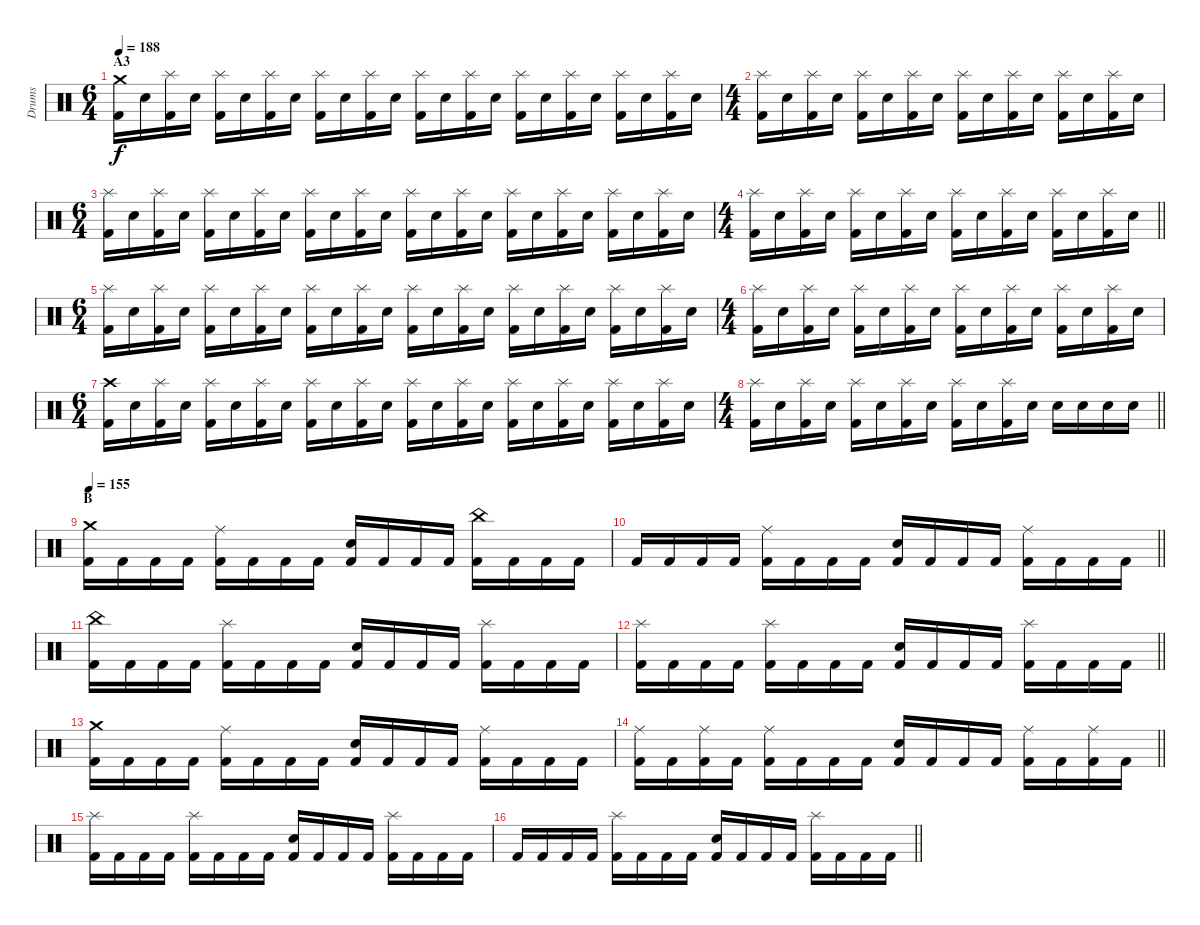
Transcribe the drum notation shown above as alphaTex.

\track ("Drums" "Drums") {instrument percussion}
\staff {score}
\articulation defaults
\ts (6 4)
\section ("" "A3")
\tempo 188
\clef neutral
\ks c
("Crash medium (hit)" "Kick (hit) 2").16{dy f} "Electric Snare (hit)".16 ("Splash (hit)" "Kick (hit) 2").16 "Electric Snare (hit)".16 ("Splash (hit)" "Kick (hit) 2").16 "Electric Snare (hit)".16 ("Splash (hit)" "Kick (hit) 2").16 "Electric Snare (hit)".16 ("Splash (hit)" "Kick (hit) 2").16 "Electric Snare (hit)".16 ("Splash (hit)" "Kick (hit) 2").16 "Electric Snare (hit)".16 ("Splash (hit)" "Kick (hit) 2").16 "Electric Snare (hit)".16 ("Splash (hit)" "Kick (hit) 2").16 "Electric Snare (hit)".16 ("Splash (hit)" "Kick (hit) 2").16 "Electric Snare (hit)".16 ("Splash (hit)" "Kick (hit) 2").16 "Electric Snare (hit)".16 ("Splash (hit)" "Kick (hit) 2").16 "Electric Snare (hit)".16 ("Splash (hit)" "Kick (hit) 2").16 "Electric Snare (hit)".16 |
\ts (4 4)
("Splash (hit)" "Kick (hit) 2").16 "Electric Snare (hit)".16 ("Splash (hit)" "Kick (hit) 2").16 "Electric Snare (hit)".16 ("Splash (hit)" "Kick (hit) 2").16 "Electric Snare (hit)".16 ("Splash (hit)" "Kick (hit) 2").16 "Electric Snare (hit)".16 ("Splash (hit)" "Kick (hit) 2").16 "Electric Snare (hit)".16 ("Splash (hit)" "Kick (hit) 2").16 "Electric Snare (hit)".16 ("Splash (hit)" "Kick (hit) 2").16 "Electric Snare (hit)".16 ("Splash (hit)" "Kick (hit) 2").16 "Electric Snare (hit)".16 |
\ts (6 4)
("Splash (hit)" "Kick (hit) 2").16 "Electric Snare (hit)".16 ("Splash (hit)" "Kick (hit) 2").16 "Electric Snare (hit)".16 ("Splash (hit)" "Kick (hit) 2").16 "Electric Snare (hit)".16 ("Splash (hit)" "Kick (hit) 2").16 "Electric Snare (hit)".16 ("Splash (hit)" "Kick (hit) 2").16 "Electric Snare (hit)".16 ("Splash (hit)" "Kick (hit) 2").16 "Electric Snare (hit)".16 ("Splash (hit)" "Kick (hit) 2").16 "Electric Snare (hit)".16 ("Splash (hit)" "Kick (hit) 2").16 "Electric Snare (hit)".16 ("Splash (hit)" "Kick (hit) 2").16 "Electric Snare (hit)".16 ("Splash (hit)" "Kick (hit) 2").16 "Electric Snare (hit)".16 ("Splash (hit)" "Kick (hit) 2").16 "Electric Snare (hit)".16 ("Splash (hit)" "Kick (hit) 2").16 "Electric Snare (hit)".16 |
\ts (4 4)
\barLineRight lightlight
("Splash (hit)" "Kick (hit) 2").16 "Electric Snare (hit)".16 ("Splash (hit)" "Kick (hit) 2").16 "Electric Snare (hit)".16 ("Splash (hit)" "Kick (hit) 2").16 "Electric Snare (hit)".16 ("Splash (hit)" "Kick (hit) 2").16 "Electric Snare (hit)".16 ("Splash (hit)" "Kick (hit) 2").16 "Electric Snare (hit)".16 ("Splash (hit)" "Kick (hit) 2").16 "Electric Snare (hit)".16 ("Splash (hit)" "Kick (hit) 2").16 "Electric Snare (hit)".16 ("Splash (hit)" "Kick (hit) 2").16 "Electric Snare (hit)".16 |
\ts (6 4)
\section ("" "")
("Splash (hit)" "Kick (hit) 2").16 "Electric Snare (hit)".16 ("Splash (hit)" "Kick (hit) 2").16 "Electric Snare (hit)".16 ("Splash (hit)" "Kick (hit) 2").16 "Electric Snare (hit)".16 ("Splash (hit)" "Kick (hit) 2").16 "Electric Snare (hit)".16 ("Splash (hit)" "Kick (hit) 2").16 "Electric Snare (hit)".16 ("Splash (hit)" "Kick (hit) 2").16 "Electric Snare (hit)".16 ("Splash (hit)" "Kick (hit) 2").16 "Electric Snare (hit)".16 ("Splash (hit)" "Kick (hit) 2").16 "Electric Snare (hit)".16 ("Splash (hit)" "Kick (hit) 2").16 "Electric Snare (hit)".16 ("Splash (hit)" "Kick (hit) 2").16 "Electric Snare (hit)".16 ("Splash (hit)" "Kick (hit) 2").16 "Electric Snare (hit)".16 ("Splash (hit)" "Kick (hit) 2").16 "Electric Snare (hit)".16 |
\ts (4 4)
("Splash (hit)" "Kick (hit) 2").16 "Electric Snare (hit)".16 ("Splash (hit)" "Kick (hit) 2").16 "Electric Snare (hit)".16 ("Splash (hit)" "Kick (hit) 2").16 "Electric Snare (hit)".16 ("Splash (hit)" "Kick (hit) 2").16 "Electric Snare (hit)".16 ("Splash (hit)" "Kick (hit) 2").16 "Electric Snare (hit)".16 ("Splash (hit)" "Kick (hit) 2").16 "Electric Snare (hit)".16 ("Splash (hit)" "Kick (hit) 2").16 "Electric Snare (hit)".16 ("Splash (hit)" "Kick (hit) 2").16 "Electric Snare (hit)".16 |
\ts (6 4)
("Crash high (hit)" "Kick (hit) 2").16 "Electric Snare (hit)".16 ("Splash (hit)" "Kick (hit) 2").16 "Electric Snare (hit)".16 ("Splash (hit)" "Kick (hit) 2").16 "Electric Snare (hit)".16 ("Splash (hit)" "Kick (hit) 2").16 "Electric Snare (hit)".16 ("Splash (hit)" "Kick (hit) 2").16 "Electric Snare (hit)".16 ("Splash (hit)" "Kick (hit) 2").16 "Electric Snare (hit)".16 ("Splash (hit)" "Kick (hit) 2").16 "Electric Snare (hit)".16 ("Splash (hit)" "Kick (hit) 2").16 "Electric Snare (hit)".16 ("Splash (hit)" "Kick (hit) 2").16 "Electric Snare (hit)".16 ("Splash (hit)" "Kick (hit) 2").16 "Electric Snare (hit)".16 ("Splash (hit)" "Kick (hit) 2").16 "Electric Snare (hit)".16 ("Splash (hit)" "Kick (hit) 2").16 "Electric Snare (hit)".16 |
\ts (4 4)
\barLineRight lightlight
("Splash (hit)" "Kick (hit) 2").16 "Electric Snare (hit)".16 ("Splash (hit)" "Kick (hit) 2").16 "Electric Snare (hit)".16 ("Splash (hit)" "Kick (hit) 2").16 "Electric Snare (hit)".16 ("Splash (hit)" "Kick (hit) 2").16 "Electric Snare (hit)".16 ("Splash (hit)" "Kick (hit) 2").16 "Electric Snare (hit)".16 ("Splash (hit)" "Kick (hit) 2").16 "Electric Snare (hit)".16 "Electric Snare (hit)".16 "Electric Snare (hit)".16 "Electric Snare (hit)".16 "Electric Snare (hit)".16 |
\section ("" "B")
\tempo 155
("Crash medium (hit)" "Kick (hit) 2").16 "Kick (hit) 2".16 "Kick (hit) 2".16 "Kick (hit) 2".16 ("Ride (middle)" "Kick (hit) 2").16 "Kick (hit) 2".16 "Kick (hit) 2".16 "Kick (hit) 2".16 ("Electric Snare (hit)" "Kick (hit) 2").16 "Kick (hit) 2".16 "Kick (hit) 2".16 "Kick (hit) 2".16 ("China (hit)" "Kick (hit) 2").16 "Kick (hit) 2".16 "Kick (hit) 2".16 "Kick (hit) 2".16 |
\barLineRight lightlight "Kick (hit) 2".16 "Kick (hit) 2".16 "Kick (hit) 2".16 "Kick (hit) 2".16
("Ride (middle)" "Kick (hit) 2").16 "Kick (hit) 2".16 "Kick (hit) 2".16 "Kick (hit) 2".16 ("Electric Snare (hit)" "Kick (hit) 2").16 "Kick (hit) 2".16 "Kick (hit) 2".16 "Kick (hit) 2".16 ("Ride (middle)" "Kick (hit) 2").16 "Kick (hit) 2".16 "Kick (hit) 2".16 "Kick (hit) 2".16 |
("China (hit)" "Kick (hit) 2").16 "Kick (hit) 2".16 "Kick (hit) 2".16 "Kick (hit) 2".16 ("Splash (hit)" "Kick (hit) 2").16 "Kick (hit) 2".16 "Kick (hit) 2".16 "Kick (hit) 2".16 ("Electric Snare (hit)" "Kick (hit) 2").16 "Kick (hit) 2".16 "Kick (hit) 2".16 "Kick (hit) 2".16 ("Splash (hit)" "Kick (hit) 2").16 "Kick (hit) 2".16 "Kick (hit) 2".16 "Kick (hit) 2".16 |
\barLineRight lightlight
("Splash (hit)" "Kick (hit) 2").16 "Kick (hit) 2".16 "Kick (hit) 2".16 "Kick (hit) 2".16 ("Splash (hit)" "Kick (hit) 2").16 "Kick (hit) 2".16 "Kick (hit) 2".16 "Kick (hit) 2".16 ("Electric Snare (hit)" "Kick (hit) 2").16 "Kick (hit) 2".16 "Kick (hit) 2".16 "Kick (hit) 2".16 ("Splash (hit)" "Kick (hit) 2").16 "Kick (hit) 2".16 "Kick (hit) 2".16 "Kick (hit) 2".16 |
\section ("" "")
("Crash medium (hit)" "Kick (hit) 2").16 "Kick (hit) 2".16 "Kick (hit) 2".16 "Kick (hit) 2".16 ("Ride (middle)" "Kick (hit) 2").16 "Kick (hit) 2".16 "Kick (hit) 2".16 "Kick (hit) 2".16 ("Electric Snare (hit)" "Kick (hit) 2").16 "Kick (hit) 2".16 "Kick (hit) 2".16 "Kick (hit) 2".16 ("Ride (middle)" "Kick (hit) 2").16 "Kick (hit) 2".16 "Kick (hit) 2".16 "Kick (hit) 2".16 |
\barLineRight lightlight
("Ride (middle)" "Kick (hit) 2").16 "Kick (hit) 2".16 ("Ride (middle)" "Kick (hit) 2").16 "Kick (hit) 2".16 ("Ride (middle)" "Kick (hit) 2").16 "Kick (hit) 2".16 "Kick (hit) 2".16 "Kick (hit) 2".16 ("Electric Snare (hit)" "Kick (hit) 2").16 "Kick (hit) 2".16 "Kick (hit) 2".16 "Kick (hit) 2".16 ("Ride (middle)" "Kick (hit) 2").16 "Kick (hit) 2".16 ("Ride (middle)" "Kick (hit) 2").16 "Kick (hit) 2".16 |
("Splash (hit)" "Kick (hit) 2").16 "Kick (hit) 2".16 "Kick (hit) 2".16 "Kick (hit) 2".16 ("Splash (hit)" "Kick (hit) 2").16 "Kick (hit) 2".16 "Kick (hit) 2".16 "Kick (hit) 2".16 ("Electric Snare (hit)" "Kick (hit) 2").16 "Kick (hit) 2".16 "Kick (hit) 2".16 "Kick (hit) 2".16 ("Splash (hit)" "Kick (hit) 2").16 "Kick (hit) 2".16 "Kick (hit) 2".16 "Kick (hit) 2".16 |
\barLineRight lightlight "Kick (hit) 2".16 "Kick (hit) 2".16 "Kick (hit) 2".16 "Kick (hit) 2".16
("Splash (hit)" "Kick (hit) 2").16 "Kick (hit) 2".16 "Kick (hit) 2".16 "Kick (hit) 2".16 ("Electric Snare (hit)" "Kick (hit) 2").16 "Kick (hit) 2".16 "Kick (hit) 2".16 "Kick (hit) 2".16 ("Splash (hit)" "Kick (hit) 2").16 "Kick (hit) 2".16 "Kick (hit) 2".16 "Kick (hit) 2".16
